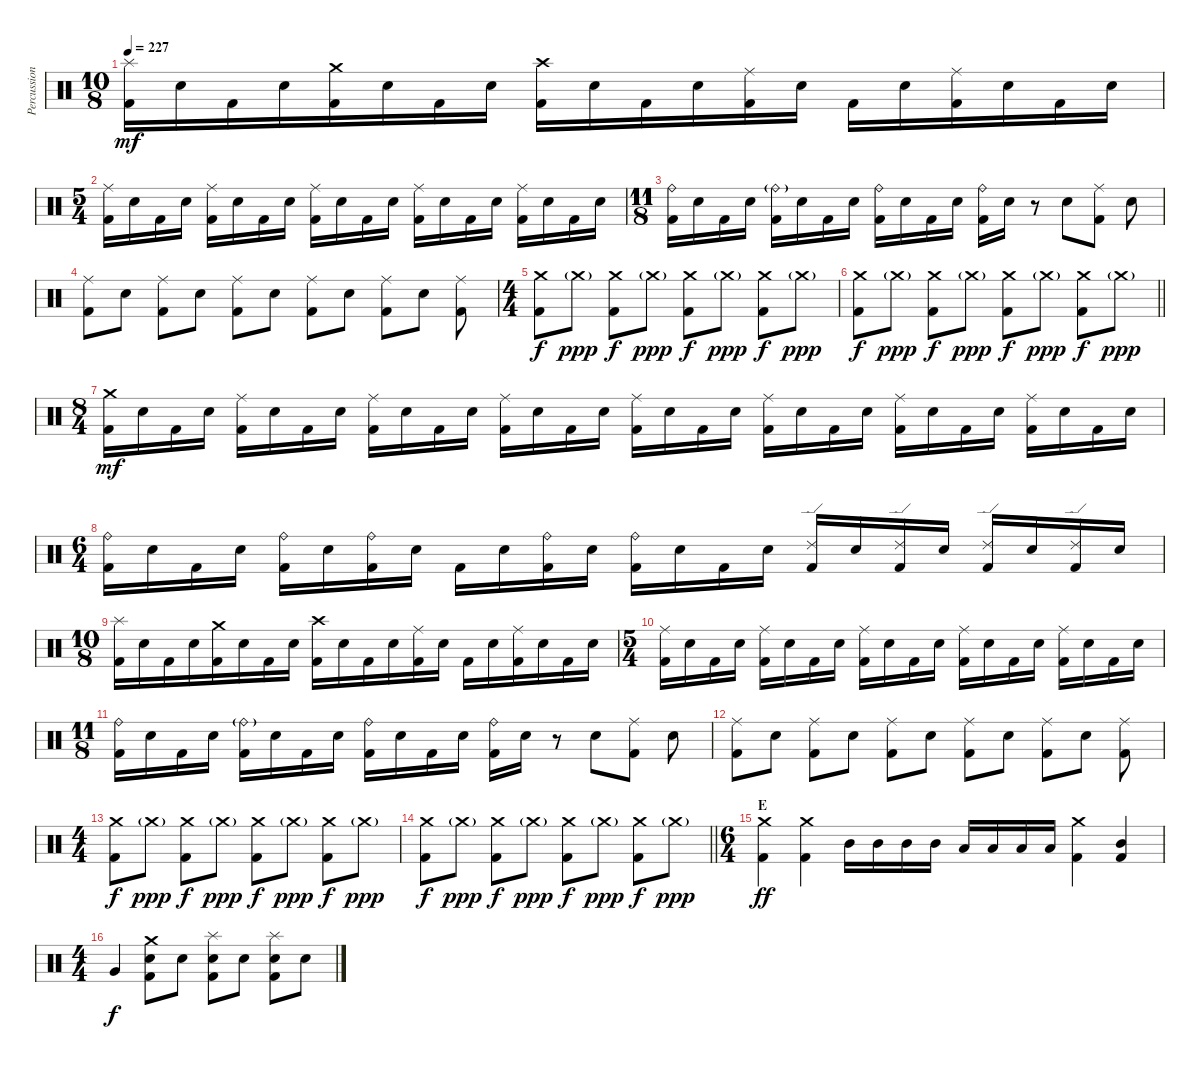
\track ("Percussion" "Percussion") {instrument percussion}
\staff {score}
\articulation defaults
\ts (10 8)
\tempo 227
\clef neutral
\ks c
("Splash (hit)" "Kick (hit) 2").16{dy mf} "Electric Snare (hit)".16 "Kick (hit) 2".16 "Electric Snare (hit)".16 ("Crash medium (hit)" "Kick (hit) 2").16 "Electric Snare (hit)".16 "Kick (hit) 2".16 "Electric Snare (hit)".16 ("Crash high (hit)" "Kick (hit) 2").16 "Electric Snare (hit)".16 "Kick (hit) 2".16 "Electric Snare (hit)".16 ("Ride (middle)" "Kick (hit) 2").16 "Electric Snare (hit)".16 "Kick (hit) 2".16 "Electric Snare (hit)".16 ("Ride (middle)" "Kick (hit) 2").16 "Electric Snare (hit)".16 "Kick (hit) 2".16 "Electric Snare (hit)".16 |
\ts (5 4)
("Ride (middle)" "Kick (hit) 2").16 "Electric Snare (hit)".16 "Kick (hit) 2".16 "Electric Snare (hit)".16 ("Ride (middle)" "Kick (hit) 2").16 "Electric Snare (hit)".16 "Kick (hit) 2".16 "Electric Snare (hit)".16 ("Ride (middle)" "Kick (hit) 2").16 "Electric Snare (hit)".16 "Kick (hit) 2".16 "Electric Snare (hit)".16 ("Ride (middle)" "Kick (hit) 2").16 "Electric Snare (hit)".16 "Kick (hit) 2".16 "Electric Snare (hit)".16 ("Ride (middle)" "Kick (hit) 2").16 "Electric Snare (hit)".16 "Kick (hit) 2".16 "Electric Snare (hit)".16 |
\ts (11 8)
("Ride (bell)" "Kick (hit) 2").16 "Electric Snare (hit)".16 "Kick (hit) 2".16 "Electric Snare (hit)".16 ("Ride (bell)"{g} "Kick (hit) 2").16 "Electric Snare (hit)".16 "Kick (hit) 2".16 "Electric Snare (hit)".16 ("Ride (bell)" "Kick (hit) 2").16 "Electric Snare (hit)".16 "Kick (hit) 2".16 "Electric Snare (hit)".16 ("Ride (bell)" "Kick (hit) 2").16 "Electric Snare (hit)".16 r.8 "Electric Snare (hit)".8 ("Ride (middle)" "Kick (hit) 2").8 "Electric Snare (hit)".8 |
("Ride (middle)" "Kick (hit) 2").8 "Electric Snare (hit)".8 ("Ride (middle)" "Kick (hit) 2").8 "Electric Snare (hit)".8 ("Ride (middle)" "Kick (hit) 2").8 "Electric Snare (hit)".8 ("Ride (middle)" "Kick (hit) 2").8 "Electric Snare (hit)".8 ("Ride (middle)" "Kick (hit) 2").8 "Electric Snare (hit)".8 ("Ride (middle)" "Kick (hit) 2").8 |
\ts (4 4)
("Crash medium (hit)" "Kick (hit) 2").8{dy f} "Crash medium (hit)"{g}.8{dy ppp} ("Crash medium (hit)" "Kick (hit) 2").8{dy f} "Crash medium (hit)"{g}.8{dy ppp} ("Crash medium (hit)" "Kick (hit) 2").8{dy f} "Crash medium (hit)"{g}.8{dy ppp} ("Crash medium (hit)" "Kick (hit) 2").8{dy f} "Crash medium (hit)"{g}.8{dy ppp} |
\barLineRight lightlight
("Crash medium (hit)" "Kick (hit) 2").8{dy f} "Crash medium (hit)"{g}.8{dy ppp} ("Crash medium (hit)" "Kick (hit) 2").8{dy f} "Crash medium (hit)"{g}.8{dy ppp} ("Crash medium (hit)" "Kick (hit) 2").8{dy f} "Crash medium (hit)"{g}.8{dy ppp} ("Crash medium (hit)" "Kick (hit) 2").8{dy f} "Crash medium (hit)"{g}.8{dy ppp} |
\ts (8 4)
\section ("" "")
("Crash medium (hit)" "Kick (hit) 2").16{dy mf} "Electric Snare (hit)".16 "Kick (hit) 2".16 "Electric Snare (hit)".16 ("Ride (middle)" "Kick (hit) 2").16 "Electric Snare (hit)".16 "Kick (hit) 2".16 "Electric Snare (hit)".16 ("Ride (middle)" "Kick (hit) 2").16 "Electric Snare (hit)".16 "Kick (hit) 2".16 "Electric Snare (hit)".16 ("Ride (middle)" "Kick (hit) 2").16 "Electric Snare (hit)".16 "Kick (hit) 2".16 "Electric Snare (hit)".16 ("Ride (middle)" "Kick (hit) 2").16 "Electric Snare (hit)".16 "Kick (hit) 2".16 "Electric Snare (hit)".16 ("Ride (middle)" "Kick (hit) 2").16 "Electric Snare (hit)".16 "Kick (hit) 2".16 "Electric Snare (hit)".16 ("Ride (middle)" "Kick (hit) 2").16 "Electric Snare (hit)".16 "Kick (hit) 2".16 "Electric Snare (hit)".16 ("Ride (middle)" "Kick (hit) 2").16 "Electric Snare (hit)".16 "Kick (hit) 2".16 "Electric Snare (hit)".16 |
\ts (6 4)
("Ride (bell)" "Kick (hit) 2").16 "Electric Snare (hit)".16 "Kick (hit) 2".16 "Electric Snare (hit)".16 ("Ride (bell)" "Kick (hit) 2").16 "Electric Snare (hit)".16 ("Ride (bell)" "Kick (hit) 2").16 "Electric Snare (hit)".16 "Kick (hit) 2".16 "Electric Snare (hit)".16 ("Ride (bell)" "Kick (hit) 2").16 "Electric Snare (hit)".16 ("Ride (bell)" "Kick (hit) 2").16 "Electric Snare (hit)".16 "Kick (hit) 2".16 "Electric Snare (hit)".16 ("Ride (edge) 2" "Kick (hit) 2").16 "Electric Snare (hit)".16 ("Ride (edge) 2" "Kick (hit) 2").16 "Electric Snare (hit)".16 ("Ride (edge) 2" "Kick (hit) 2").16 "Electric Snare (hit)".16 ("Ride (edge) 2" "Kick (hit) 2").16 "Electric Snare (hit)".16 |
\ts (10 8)
("Splash (hit)" "Kick (hit) 2").16 "Electric Snare (hit)".16 "Kick (hit) 2".16 "Electric Snare (hit)".16 ("Crash medium (hit)" "Kick (hit) 2").16 "Electric Snare (hit)".16 "Kick (hit) 2".16 "Electric Snare (hit)".16 ("Crash high (hit)" "Kick (hit) 2").16 "Electric Snare (hit)".16 "Kick (hit) 2".16 "Electric Snare (hit)".16 ("Ride (middle)" "Kick (hit) 2").16 "Electric Snare (hit)".16 "Kick (hit) 2".16 "Electric Snare (hit)".16 ("Ride (middle)" "Kick (hit) 2").16 "Electric Snare (hit)".16 "Kick (hit) 2".16 "Electric Snare (hit)".16 |
\ts (5 4)
("Ride (middle)" "Kick (hit) 2").16 "Electric Snare (hit)".16 "Kick (hit) 2".16 "Electric Snare (hit)".16 ("Ride (middle)" "Kick (hit) 2").16 "Electric Snare (hit)".16 "Kick (hit) 2".16 "Electric Snare (hit)".16 ("Ride (middle)" "Kick (hit) 2").16 "Electric Snare (hit)".16 "Kick (hit) 2".16 "Electric Snare (hit)".16 ("Ride (middle)" "Kick (hit) 2").16 "Electric Snare (hit)".16 "Kick (hit) 2".16 "Electric Snare (hit)".16 ("Ride (middle)" "Kick (hit) 2").16 "Electric Snare (hit)".16 "Kick (hit) 2".16 "Electric Snare (hit)".16 |
\ts (11 8)
("Ride (bell)" "Kick (hit) 2").16 "Electric Snare (hit)".16 "Kick (hit) 2".16 "Electric Snare (hit)".16 ("Ride (bell)"{g} "Kick (hit) 2").16 "Electric Snare (hit)".16 "Kick (hit) 2".16 "Electric Snare (hit)".16 ("Ride (bell)" "Kick (hit) 2").16 "Electric Snare (hit)".16 "Kick (hit) 2".16 "Electric Snare (hit)".16 ("Ride (bell)" "Kick (hit) 2").16 "Electric Snare (hit)".16 r.8 "Electric Snare (hit)".8 ("Ride (middle)" "Kick (hit) 2").8 "Electric Snare (hit)".8 |
("Ride (middle)" "Kick (hit) 2").8 "Electric Snare (hit)".8 ("Ride (middle)" "Kick (hit) 2").8 "Electric Snare (hit)".8 ("Ride (middle)" "Kick (hit) 2").8 "Electric Snare (hit)".8 ("Ride (middle)" "Kick (hit) 2").8 "Electric Snare (hit)".8 ("Ride (middle)" "Kick (hit) 2").8 "Electric Snare (hit)".8 ("Ride (middle)" "Kick (hit) 2").8 |
\ts (4 4)
("Crash medium (hit)" "Kick (hit) 2").8{dy f} "Crash medium (hit)"{g}.8{dy ppp} ("Crash medium (hit)" "Kick (hit) 2").8{dy f} "Crash medium (hit)"{g}.8{dy ppp} ("Crash medium (hit)" "Kick (hit) 2").8{dy f} "Crash medium (hit)"{g}.8{dy ppp} ("Crash medium (hit)" "Kick (hit) 2").8{dy f} "Crash medium (hit)"{g}.8{dy ppp} |
\barLineRight lightlight
("Crash medium (hit)" "Kick (hit) 2").8{dy f} "Crash medium (hit)"{g}.8{dy ppp} ("Crash medium (hit)" "Kick (hit) 2").8{dy f} "Crash medium (hit)"{g}.8{dy ppp} ("Crash medium (hit)" "Kick (hit) 2").8{dy f} "Crash medium (hit)"{g}.8{dy ppp} ("Crash medium (hit)" "Kick (hit) 2").8{dy f} "Crash medium (hit)"{g}.8{dy ppp} |
\ts (6 4)
\section ("" "E")
("Crash medium (hit)" "Kick (hit) 2").4{dy ff} ("Crash medium (hit)" "Kick (hit) 2").4 "Mid Tom (hit)".16 "Mid Tom (hit)".16 "Mid Tom (hit)".16 "Mid Tom (hit)".16 "Low Tom (hit)".16 "Low Tom (hit)".16 "Low Tom (hit)".16 "Low Tom (hit)".16 ("Crash medium (hit)" "Kick (hit) 2").4 ("Mid Tom (hit)" "Kick (hit) 2").4 |
\ts (4 4)
"Very Low Tom (hit)".4{dy f} ("Crash medium (hit)" "Electric Snare (hit)" "Kick (hit) 2").8 "Electric Snare (hit)".8 ("Splash (hit)" "Electric Snare (hit)" "Kick (hit) 2").8 "Electric Snare (hit)".8 ("Splash (hit)" "Electric Snare (hit)" "Kick (hit) 2").8 "Electric Snare (hit)".8
